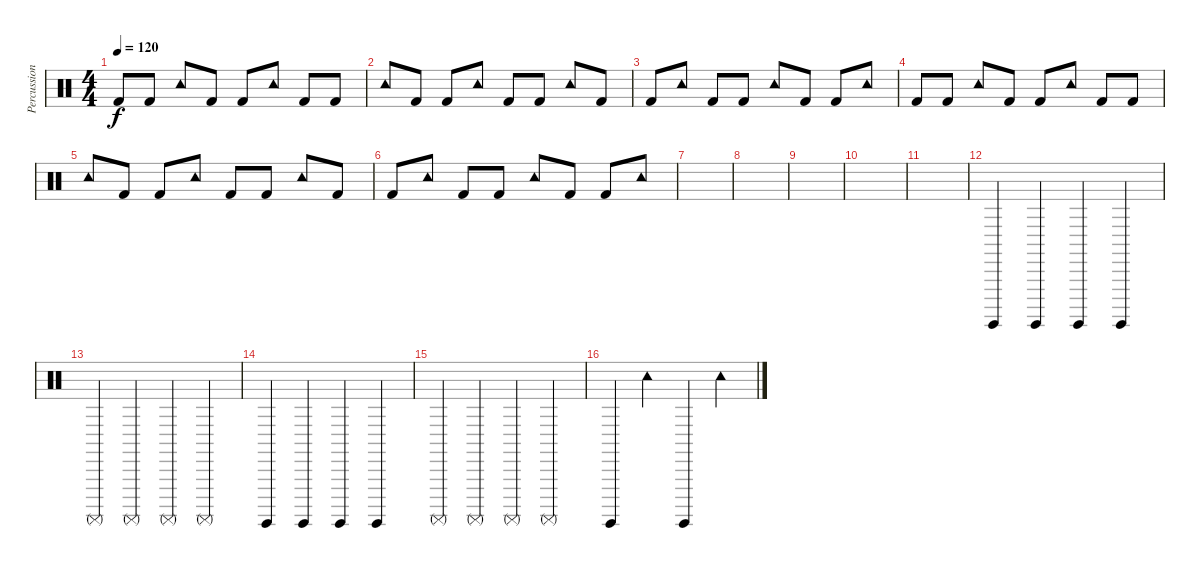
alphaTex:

\track ("Percussion" "Percussion") {instrument percussion}
\staff {score}
\articulation defaults
\ts (4 4)
\tempo 120
\clef neutral
\ks c "Kick (hit) 2".8{dy f} "Kick (hit) 2".8 "Tambourine (hit)".8 "Kick (hit) 2".8 "Kick (hit) 2".8 "Tambourine (hit)".8 "Kick (hit) 2".8 "Kick (hit) 2".8
|
"Tambourine (hit)".8 "Kick (hit) 2".8 "Kick (hit) 2".8 "Tambourine (hit)".8 "Kick (hit) 2".8 "Kick (hit) 2".8 "Tambourine (hit)".8 "Kick (hit) 2".8 |
"Kick (hit) 2".8 "Tambourine (hit)".8 "Kick (hit) 2".8 "Kick (hit) 2".8 "Tambourine (hit)".8 "Kick (hit) 2".8 "Kick (hit) 2".8 "Tambourine (hit)".8 |
"Kick (hit) 2".8 "Kick (hit) 2".8 "Tambourine (hit)".8 "Kick (hit) 2".8 "Kick (hit) 2".8 "Tambourine (hit)".8 "Kick (hit) 2".8 "Kick (hit) 2".8 |
"Tambourine (hit)".8 "Kick (hit) 2".8 "Kick (hit) 2".8 "Tambourine (hit)".8 "Kick (hit) 2".8 "Kick (hit) 2".8 "Tambourine (hit)".8 "Kick (hit) 2".8 |
"Kick (hit) 2".8 "Tambourine (hit)".8 "Kick (hit) 2".8 "Kick (hit) 2".8 "Tambourine (hit)".8 "Kick (hit) 2".8 "Kick (hit) 2".8 "Tambourine (hit)".8 |
|
|
|
|
|
"Surdo (hit)".4 "Surdo (hit)".4 "Surdo (hit)".4 "Surdo (hit)".4 |
"Surdo (mute)".4 "Surdo (mute)".4 "Surdo (mute)".4 "Surdo (mute)".4 |
"Surdo (hit)".4 "Surdo (hit)".4 "Surdo (hit)".4 "Surdo (hit)".4 |
"Surdo (mute)".4 "Surdo (mute)".4 "Surdo (mute)".4 "Surdo (mute)".4 |
"Surdo (hit)".4 "Tambourine (hit)".4 "Surdo (hit)".4 "Tambourine (hit)".4
